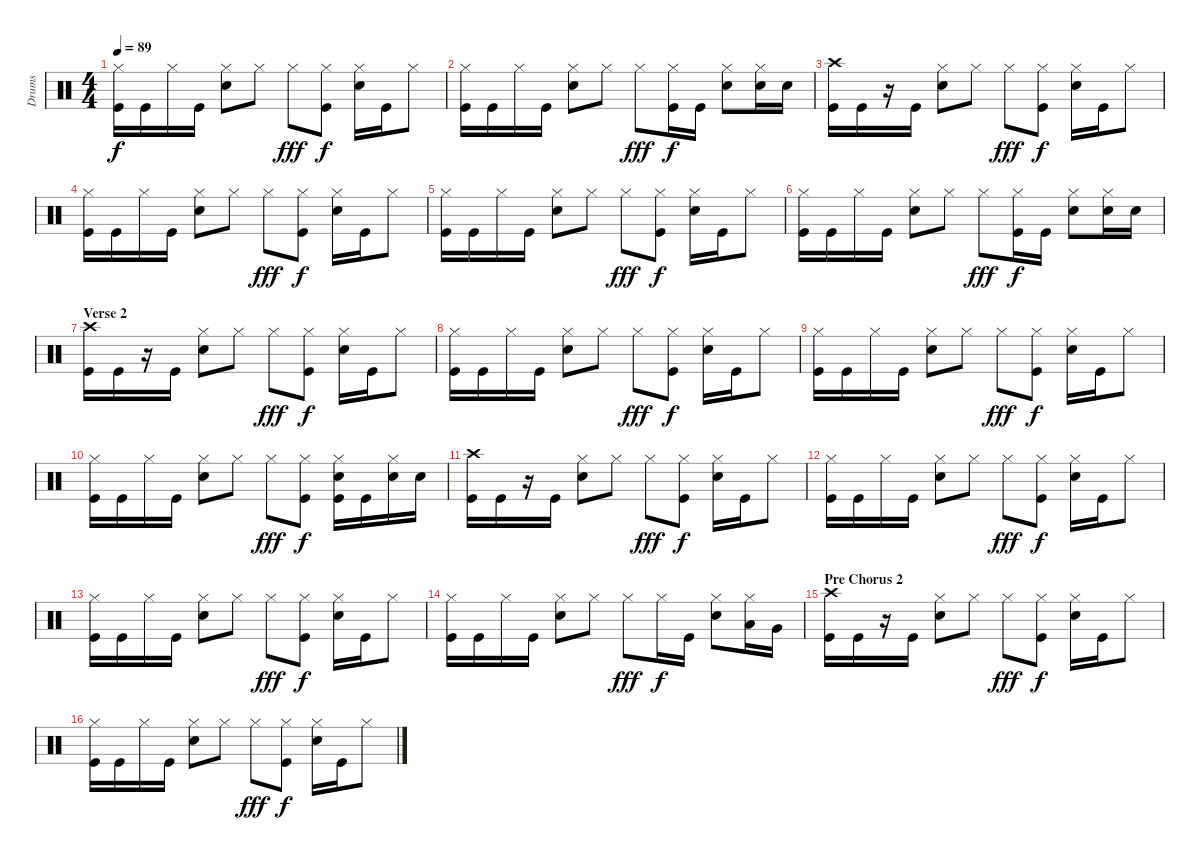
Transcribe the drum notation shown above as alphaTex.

\track ("Drums" "Drums") {instrument percussion}
\staff {score}
\articulation defaults
\ts (4 4)
\tempo 89
\clef neutral
\ks c
("Hi-Hat (closed)" "Kick (hit)").16{dy f} "Kick (hit)".16 "Hi-Hat (closed)".16 "Kick (hit)".16 ("Hi-Hat (closed)" "Snare (hit) 2").8 "Hi-Hat (closed)".8 "Hi-Hat (closed)".8{dy fff} ("Hi-Hat (closed)" "Kick (hit)").8{dy f} ("Hi-Hat (closed)" "Snare (hit) 2").16 "Kick (hit)".16 "Hi-Hat (closed)".8 |
("Hi-Hat (closed)" "Kick (hit)").16 "Kick (hit)".16 "Hi-Hat (closed)".16 "Kick (hit)".16 ("Hi-Hat (closed)" "Snare (hit) 2").8 "Hi-Hat (closed)".8 "Hi-Hat (closed)".8{dy fff} ("Hi-Hat (closed)" "Kick (hit)").16{dy f} "Kick (hit)".16 ("Hi-Hat (closed)" "Snare (hit) 2").8 ("Hi-Hat (closed)" "Snare (hit) 2").16 "Snare (hit) 2".16 |
("Crash high (hit)" "Kick (hit)").16 "Kick (hit)".16 r.16 "Kick (hit)".16 ("Hi-Hat (closed)" "Snare (hit) 2").8 "Hi-Hat (closed)".8 "Hi-Hat (closed)".8{dy fff} ("Hi-Hat (closed)" "Kick (hit)").8{dy f} ("Hi-Hat (closed)" "Snare (hit) 2").16 "Kick (hit)".16 "Hi-Hat (closed)".8 |
("Hi-Hat (closed)" "Kick (hit)").16 "Kick (hit)".16 "Hi-Hat (closed)".16 "Kick (hit)".16 ("Hi-Hat (closed)" "Snare (hit) 2").8 "Hi-Hat (closed)".8 "Hi-Hat (closed)".8{dy fff} ("Hi-Hat (closed)" "Kick (hit)").8{dy f} ("Hi-Hat (closed)" "Snare (hit) 2").16 "Kick (hit)".16 "Hi-Hat (closed)".8 |
("Hi-Hat (closed)" "Kick (hit)").16 "Kick (hit)".16 "Hi-Hat (closed)".16 "Kick (hit)".16 ("Hi-Hat (closed)" "Snare (hit) 2").8 "Hi-Hat (closed)".8 "Hi-Hat (closed)".8{dy fff} ("Hi-Hat (closed)" "Kick (hit)").8{dy f} ("Hi-Hat (closed)" "Snare (hit) 2").16 "Kick (hit)".16 "Hi-Hat (closed)".8 |
("Hi-Hat (closed)" "Kick (hit)").16 "Kick (hit)".16 "Hi-Hat (closed)".16 "Kick (hit)".16 ("Hi-Hat (closed)" "Snare (hit) 2").8 "Hi-Hat (closed)".8 "Hi-Hat (closed)".8{dy fff} ("Hi-Hat (closed)" "Kick (hit)").16{dy f} "Kick (hit)".16 ("Hi-Hat (closed)" "Snare (hit) 2").8 ("Hi-Hat (closed)" "Snare (hit) 2").16 "Snare (hit) 2".16 |
\section ("" "Verse 2")
("Crash high (hit)" "Kick (hit)").16 "Kick (hit)".16 r.16 "Kick (hit)".16 ("Hi-Hat (closed)" "Snare (hit) 2").8 "Hi-Hat (closed)".8 "Hi-Hat (closed)".8{dy fff} ("Hi-Hat (closed)" "Kick (hit)").8{dy f} ("Hi-Hat (closed)" "Snare (hit) 2").16 "Kick (hit)".16 "Hi-Hat (closed)".8 |
("Hi-Hat (closed)" "Kick (hit)").16 "Kick (hit)".16 "Hi-Hat (closed)".16 "Kick (hit)".16 ("Hi-Hat (closed)" "Snare (hit) 2").8 "Hi-Hat (closed)".8 "Hi-Hat (closed)".8{dy fff} ("Hi-Hat (closed)" "Kick (hit)").8{dy f} ("Hi-Hat (closed)" "Snare (hit) 2").16 "Kick (hit)".16 "Hi-Hat (closed)".8 |
("Hi-Hat (closed)" "Kick (hit)").16 "Kick (hit)".16 "Hi-Hat (closed)".16 "Kick (hit)".16 ("Hi-Hat (closed)" "Snare (hit) 2").8 "Hi-Hat (closed)".8 "Hi-Hat (closed)".8{dy fff} ("Hi-Hat (closed)" "Kick (hit)").8{dy f} ("Hi-Hat (closed)" "Snare (hit) 2").16 "Kick (hit)".16 "Hi-Hat (closed)".8 |
("Hi-Hat (closed)" "Kick (hit)").16 "Kick (hit)".16 "Hi-Hat (closed)".16 "Kick (hit)".16 ("Hi-Hat (closed)" "Snare (hit) 2").8 "Hi-Hat (closed)".8 "Hi-Hat (closed)".8{dy fff} ("Hi-Hat (closed)" "Kick (hit)").8{dy f} ("Hi-Hat (closed)" "Snare (hit) 2" "Kick (hit)").16 "Kick (hit)".16 ("Hi-Hat (closed)" "Snare (hit) 2").16 "Snare (hit) 2".16 |
("Crash high (hit)" "Kick (hit)").16 "Kick (hit)".16 r.16 "Kick (hit)".16 ("Hi-Hat (closed)" "Snare (hit) 2").8 "Hi-Hat (closed)".8 "Hi-Hat (closed)".8{dy fff} ("Hi-Hat (closed)" "Kick (hit)").8{dy f} ("Hi-Hat (closed)" "Snare (hit) 2").16 "Kick (hit)".16 "Hi-Hat (closed)".8 |
("Hi-Hat (closed)" "Kick (hit)").16 "Kick (hit)".16 "Hi-Hat (closed)".16 "Kick (hit)".16 ("Hi-Hat (closed)" "Snare (hit) 2").8 "Hi-Hat (closed)".8 "Hi-Hat (closed)".8{dy fff} ("Hi-Hat (closed)" "Kick (hit)").8{dy f} ("Hi-Hat (closed)" "Snare (hit) 2").16 "Kick (hit)".16 "Hi-Hat (closed)".8 |
("Hi-Hat (closed)" "Kick (hit)").16 "Kick (hit)".16 "Hi-Hat (closed)".16 "Kick (hit)".16 ("Hi-Hat (closed)" "Snare (hit) 2").8 "Hi-Hat (closed)".8 "Hi-Hat (closed)".8{dy fff} ("Hi-Hat (closed)" "Kick (hit)").8{dy f} ("Hi-Hat (closed)" "Snare (hit) 2").16 "Kick (hit)".16 "Hi-Hat (closed)".8 |
("Hi-Hat (closed)" "Kick (hit)").16 "Kick (hit)".16 "Hi-Hat (closed)".16 "Kick (hit)".16 ("Hi-Hat (closed)" "Snare (hit) 2").8 "Hi-Hat (closed)".8 "Hi-Hat (closed)".8{dy fff} "Hi-Hat (closed)".16{dy f} "Kick (hit)".16 ("Hi-Hat (closed)" "Snare (hit) 2").8 ("Hi-Hat (closed)" "Low Tom (hit)").16 "Very Low Tom (hit)".16 |
\section ("" "Pre Chorus 2")
("Crash high (hit)" "Kick (hit)").16 "Kick (hit)".16 r.16 "Kick (hit)".16 ("Hi-Hat (closed)" "Snare (hit) 2").8 "Hi-Hat (closed)".8 "Hi-Hat (closed)".8{dy fff} ("Hi-Hat (closed)" "Kick (hit)").8{dy f} ("Hi-Hat (closed)" "Snare (hit) 2").16 "Kick (hit)".16 "Hi-Hat (closed)".8 |
("Hi-Hat (closed)" "Kick (hit)").16 "Kick (hit)".16 "Hi-Hat (closed)".16 "Kick (hit)".16 ("Hi-Hat (closed)" "Snare (hit) 2").8 "Hi-Hat (closed)".8 "Hi-Hat (closed)".8{dy fff} ("Hi-Hat (closed)" "Kick (hit)").8{dy f} ("Hi-Hat (closed)" "Snare (hit) 2").16 "Kick (hit)".16 "Hi-Hat (closed)".8
